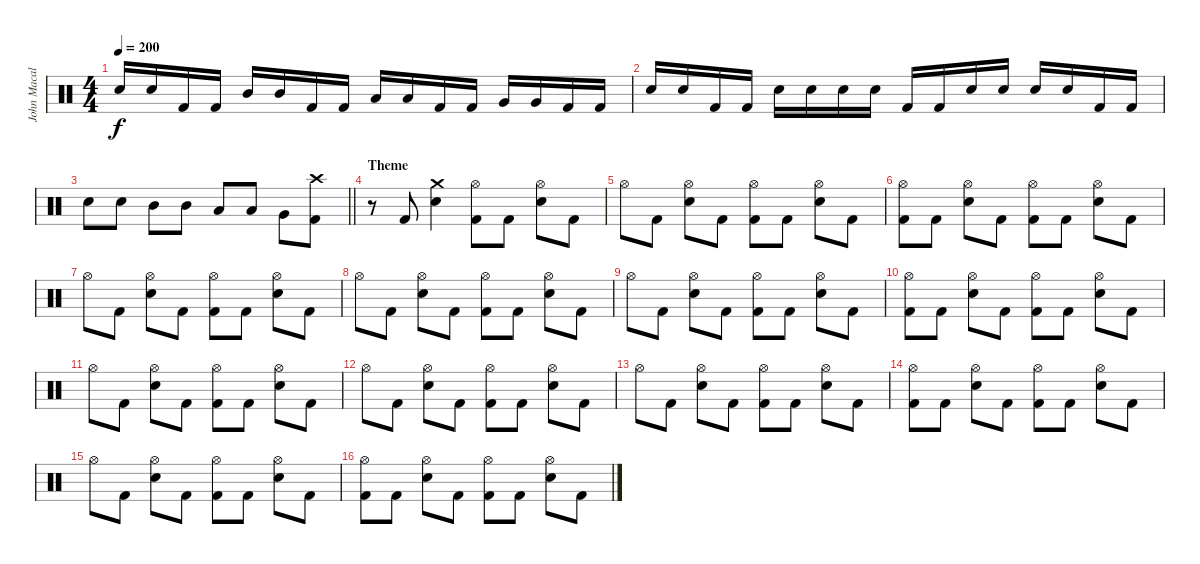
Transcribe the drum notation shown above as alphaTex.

\track ("John Macaluso" "John Macal") {instrument percussion}
\staff {score}
\articulation defaults
\ts (4 4)
\tempo 200
\clef neutral
\ks c "Snare (hit) 2".16{dy f} "Snare (hit) 2".16 "Kick (hit) 2".16 "Kick (hit) 2".16 "Mid Tom (hit)".16 "Mid Tom (hit)".16 "Kick (hit) 2".16 "Kick (hit) 2".16 "Low Tom (hit)".16 "Low Tom (hit)".16 "Kick (hit) 2".16 "Kick (hit) 2".16 "Very Low Tom (hit)".16 "Very Low Tom (hit)".16 "Kick (hit) 2".16 "Kick (hit) 2".16
|
"Snare (hit) 2".16 "Snare (hit) 2".16 "Kick (hit) 2".16 "Kick (hit) 2".16 "Snare (hit) 2".16 "Snare (hit) 2".16 "Snare (hit) 2".16 "Snare (hit) 2".16 "Kick (hit) 2".16 "Kick (hit) 2".16 "Snare (hit) 2".16 "Snare (hit) 2".16 "Snare (hit) 2".16 "Snare (hit) 2".16 "Kick (hit) 2".16 "Kick (hit) 2".16 |
\barLineRight lightlight "Snare (hit) 2".8 "Snare (hit) 2".8 "Mid Tom (hit)".8 "Mid Tom (hit)".8 "Low Tom (hit)".8 "Low Tom (hit)".8 "Very Low Tom (hit)".8
("Crash high (hit)" "Kick (hit) 2").8 |
\section ("" "Theme")
r.8 "Kick (hit) 2".8 ("Crash medium (hit)" "Snare (hit) 2").4 ("Hi-Hat (open)" "Kick (hit) 2").8 "Kick (hit) 2".8 ("Hi-Hat (open)" "Snare (hit) 2").8 "Kick (hit) 2".8 |
"Hi-Hat (open)".8 "Kick (hit) 2".8 ("Hi-Hat (open)" "Snare (hit) 2").8 "Kick (hit) 2".8 ("Hi-Hat (open)" "Kick (hit) 2").8 "Kick (hit) 2".8 ("Hi-Hat (open)" "Snare (hit) 2").8 "Kick (hit) 2".8 |
("Hi-Hat (open)" "Kick (hit) 2").8 "Kick (hit) 2".8 ("Hi-Hat (open)" "Snare (hit) 2").8 "Kick (hit) 2".8 ("Hi-Hat (open)" "Kick (hit) 2").8 "Kick (hit) 2".8 ("Hi-Hat (open)" "Snare (hit) 2").8 "Kick (hit) 2".8 |
"Hi-Hat (open)".8 "Kick (hit) 2".8 ("Hi-Hat (open)" "Snare (hit) 2").8 "Kick (hit) 2".8 ("Hi-Hat (open)" "Kick (hit) 2").8 "Kick (hit) 2".8 ("Hi-Hat (open)" "Snare (hit) 2").8 "Kick (hit) 2".8 |
"Hi-Hat (open)".8 "Kick (hit) 2".8 ("Hi-Hat (open)" "Snare (hit) 2").8 "Kick (hit) 2".8 ("Hi-Hat (open)" "Kick (hit) 2").8 "Kick (hit) 2".8 ("Hi-Hat (open)" "Snare (hit) 2").8 "Kick (hit) 2".8 |
"Hi-Hat (open)".8 "Kick (hit) 2".8 ("Hi-Hat (open)" "Snare (hit) 2").8 "Kick (hit) 2".8 ("Hi-Hat (open)" "Kick (hit) 2").8 "Kick (hit) 2".8 ("Hi-Hat (open)" "Snare (hit) 2").8 "Kick (hit) 2".8 |
("Hi-Hat (open)" "Kick (hit) 2").8 "Kick (hit) 2".8 ("Hi-Hat (open)" "Snare (hit) 2").8 "Kick (hit) 2".8 ("Hi-Hat (open)" "Kick (hit) 2").8 "Kick (hit) 2".8 ("Hi-Hat (open)" "Snare (hit) 2").8 "Kick (hit) 2".8 |
"Hi-Hat (open)".8 "Kick (hit) 2".8 ("Hi-Hat (open)" "Snare (hit) 2").8 "Kick (hit) 2".8 ("Hi-Hat (open)" "Kick (hit) 2").8 "Kick (hit) 2".8 ("Hi-Hat (open)" "Snare (hit) 2").8 "Kick (hit) 2".8 |
"Hi-Hat (open)".8 "Kick (hit) 2".8 ("Hi-Hat (open)" "Snare (hit) 2").8 "Kick (hit) 2".8 ("Hi-Hat (open)" "Kick (hit) 2").8 "Kick (hit) 2".8 ("Hi-Hat (open)" "Snare (hit) 2").8 "Kick (hit) 2".8 |
"Hi-Hat (open)".8 "Kick (hit) 2".8 ("Hi-Hat (open)" "Snare (hit) 2").8 "Kick (hit) 2".8 ("Hi-Hat (open)" "Kick (hit) 2").8 "Kick (hit) 2".8 ("Hi-Hat (open)" "Snare (hit) 2").8 "Kick (hit) 2".8 |
("Hi-Hat (open)" "Kick (hit) 2").8 "Kick (hit) 2".8 ("Hi-Hat (open)" "Snare (hit) 2").8 "Kick (hit) 2".8 ("Hi-Hat (open)" "Kick (hit) 2").8 "Kick (hit) 2".8 ("Hi-Hat (open)" "Snare (hit) 2").8 "Kick (hit) 2".8 |
"Hi-Hat (open)".8 "Kick (hit) 2".8 ("Hi-Hat (open)" "Snare (hit) 2").8 "Kick (hit) 2".8 ("Hi-Hat (open)" "Kick (hit) 2").8 "Kick (hit) 2".8 ("Hi-Hat (open)" "Snare (hit) 2").8 "Kick (hit) 2".8 |
("Hi-Hat (open)" "Kick (hit) 2").8 "Kick (hit) 2".8 ("Hi-Hat (open)" "Snare (hit) 2").8 "Kick (hit) 2".8 ("Hi-Hat (open)" "Kick (hit) 2").8 "Kick (hit) 2".8 ("Hi-Hat (open)" "Snare (hit) 2").8 "Kick (hit) 2".8
